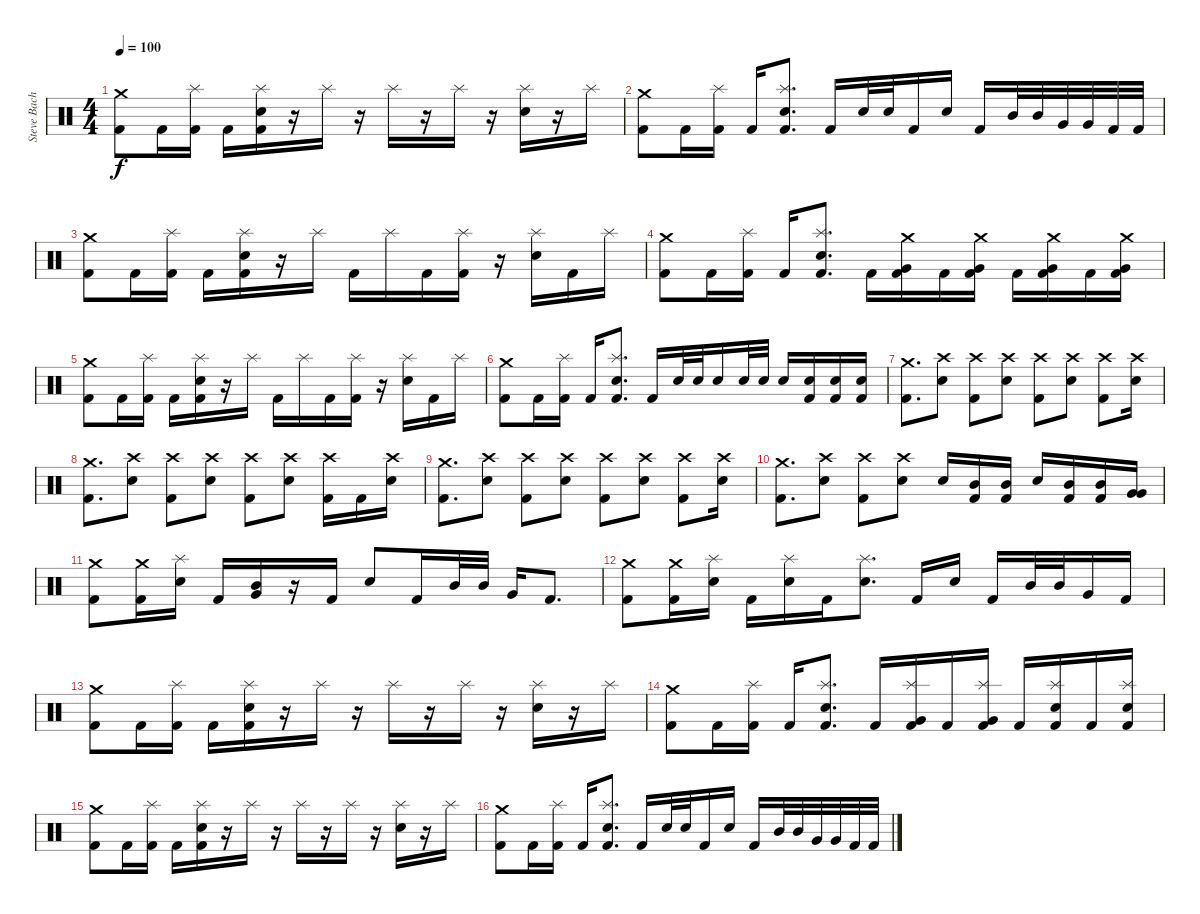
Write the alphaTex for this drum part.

\track ("Steve Bache" "Steve Bach") {instrument percussion}
\staff {score}
\articulation defaults
\ts (4 4)
\tempo 100
\clef neutral
\ks c
("Crash medium (hit)" "Kick (hit) 2").8{dy f} "Kick (hit) 2".16 ("Splash (hit)" "Kick (hit) 2").16 "Kick (hit) 2".16 ("Splash (hit)" "Electric Snare (hit)" "Kick (hit) 2").16 r.16 "Splash (hit)".16 r.16 "Splash (hit)".16 r.16 "Splash (hit)".16 r.16 ("Splash (hit)" "Electric Snare (hit)").16 r.16 "Splash (hit)".16 |
("Crash medium (hit)" "Kick (hit) 2").8 "Kick (hit) 2".16 ("Splash (hit)" "Kick (hit) 2").16 "Kick (hit) 2".16 ("Splash (hit)" "Electric Snare (hit)" "Kick (hit) 2").8{d} "Kick (hit) 2".16 "Electric Snare (hit)".32 "Electric Snare (hit)".32 "Kick (hit) 2".16 "Electric Snare (hit)".16 "Kick (hit) 2".16 "Mid Tom (hit)".32 "Mid Tom (hit)".32 "Very Low Tom (hit)".32 "Very Low Tom (hit)".32 "Kick (hit) 2".32 "Kick (hit) 2".32 |
("Crash medium (hit)" "Kick (hit) 2").8 "Kick (hit) 2".16 ("Splash (hit)" "Kick (hit) 2").16 "Kick (hit) 2".16 ("Splash (hit)" "Electric Snare (hit)" "Kick (hit) 2").16 r.16 "Splash (hit)".16 "Kick (hit) 2".16 "Splash (hit)".16 "Kick (hit) 2".16 ("Splash (hit)" "Kick (hit) 2").16 r.16 ("Splash (hit)" "Electric Snare (hit)").16 "Kick (hit) 2".16 "Splash (hit)".16 |
("Crash medium (hit)" "Kick (hit) 2").8 "Kick (hit) 2".16 ("Splash (hit)" "Kick (hit) 2").16 "Kick (hit) 2".16 ("Splash (hit)" "Electric Snare (hit)" "Kick (hit) 2").8{d} "Kick (hit) 2".16 ("Crash medium (hit)" "Very Low Tom (hit)" "Kick (hit) 2").16 "Kick (hit) 2".16 ("Crash medium (hit)" "Very Low Tom (hit)" "Kick (hit) 2").16 "Kick (hit) 2".16 ("Crash medium (hit)" "Very Low Tom (hit)" "Kick (hit) 2").16 "Kick (hit) 2".16 ("Crash medium (hit)" "Very Low Tom (hit)" "Kick (hit) 2").16 |
("Crash medium (hit)" "Kick (hit) 2").8 "Kick (hit) 2".16 ("Splash (hit)" "Kick (hit) 2").16 "Kick (hit) 2".16 ("Splash (hit)" "Electric Snare (hit)" "Kick (hit) 2").16 r.16 "Splash (hit)".16 "Kick (hit) 2".16 "Splash (hit)".16 "Kick (hit) 2".16 ("Splash (hit)" "Kick (hit) 2").16 r.16 ("Splash (hit)" "Electric Snare (hit)").16 "Kick (hit) 2".16 "Splash (hit)".16 |
("Crash medium (hit)" "Kick (hit) 2").8 "Kick (hit) 2".16 ("Splash (hit)" "Kick (hit) 2").16 "Kick (hit) 2".16 ("Splash (hit)" "Electric Snare (hit)" "Kick (hit) 2").8{d} "Kick (hit) 2".16 "Electric Snare (hit)".32 "Electric Snare (hit)".32 "Electric Snare (hit)".16 "Electric Snare (hit)".32 "Electric Snare (hit)".32 "Electric Snare (hit)".16 ("Electric Snare (hit)" "Kick (hit) 2").16 ("Electric Snare (hit)" "Kick (hit) 2").16 ("Electric Snare (hit)" "Kick (hit) 2").16 |
("Crash medium (hit)" "Kick (hit) 2").8{d} ("Crash high (hit)" "Electric Snare (hit)").8 ("Crash high (hit)" "Kick (hit) 2").8 ("Crash high (hit)" "Electric Snare (hit)").8 ("Crash high (hit)" "Kick (hit) 2").8 ("Crash high (hit)" "Electric Snare (hit)").8 ("Crash high (hit)" "Kick (hit) 2").8 ("Crash high (hit)" "Electric Snare (hit)").16 |
("Crash medium (hit)" "Kick (hit) 2").8{d} ("Crash high (hit)" "Electric Snare (hit)").8 ("Crash high (hit)" "Kick (hit) 2").8 ("Crash high (hit)" "Electric Snare (hit)").8 ("Crash high (hit)" "Kick (hit) 2").8 ("Crash high (hit)" "Electric Snare (hit)").8 ("Crash high (hit)" "Kick (hit) 2").16 "Kick (hit) 2".16 ("Crash high (hit)" "Electric Snare (hit)").16 |
("Crash medium (hit)" "Kick (hit) 2").8{d} ("Crash high (hit)" "Electric Snare (hit)").8 ("Crash high (hit)" "Kick (hit) 2").8 ("Crash high (hit)" "Electric Snare (hit)").8 ("Crash high (hit)" "Kick (hit) 2").8 ("Crash high (hit)" "Electric Snare (hit)").8 ("Crash high (hit)" "Kick (hit) 2").8 ("Crash high (hit)" "Electric Snare (hit)").16 |
("Crash medium (hit)" "Kick (hit) 2").8{d} ("Crash high (hit)" "Electric Snare (hit)").8 ("Crash high (hit)" "Kick (hit) 2").8 ("Crash high (hit)" "Electric Snare (hit)").8 "Electric Snare (hit)".16 ("Mid Tom (hit)" "Kick (hit) 2").16 ("Mid Tom (hit)" "Kick (hit) 2").16 "Electric Snare (hit)".16 ("Mid Tom (hit)" "Kick (hit) 2").16 ("Mid Tom (hit)" "Kick (hit) 2").16 ("Very Low Tom (hit)" "Very Low Tom (hit)").16 |
("Crash medium (hit)" "Kick (hit) 2").8 ("Crash medium (hit)" "Kick (hit) 2").16 ("Splash (hit)" "Electric Snare (hit)").16 "Kick (hit) 2".16 ("Mid Tom (hit)" "Very Low Tom (hit)").16 r.16 "Kick (hit) 2".16 "Electric Snare (hit)".8 "Kick (hit) 2".16 "Mid Tom (hit)".32 "Mid Tom (hit)".32 "Very Low Tom (hit)".16 "Kick (hit) 2".8{d} |
("Crash medium (hit)" "Kick (hit) 2").8 ("Crash medium (hit)" "Kick (hit) 2").16 ("Splash (hit)" "Electric Snare (hit)").16 "Kick (hit) 2".16 ("Splash (hit)" "Electric Snare (hit)").16 "Kick (hit) 2".16 ("Splash (hit)" "Electric Snare (hit)").8{d} "Kick (hit) 2".16 "Electric Snare (hit)".16 "Kick (hit) 2".16 "Mid Tom (hit)".32 "Mid Tom (hit)".32 "Very Low Tom (hit)".16 "Kick (hit) 2".16 |
("Crash medium (hit)" "Kick (hit) 2").8 "Kick (hit) 2".16 ("Splash (hit)" "Kick (hit) 2").16 "Kick (hit) 2".16 ("Splash (hit)" "Electric Snare (hit)" "Kick (hit) 2").16 r.16 "Splash (hit)".16 r.16 "Splash (hit)".16 r.16 "Splash (hit)".16 r.16 ("Splash (hit)" "Electric Snare (hit)").16 r.16 "Splash (hit)".16 |
("Crash medium (hit)" "Kick (hit) 2").8 "Kick (hit) 2".16 ("Splash (hit)" "Kick (hit) 2").16 "Kick (hit) 2".16 ("Splash (hit)" "Electric Snare (hit)" "Kick (hit) 2").8{d} "Kick (hit) 2".16 ("Splash (hit)" "Very Low Tom (hit)" "Kick (hit) 2").16 "Kick (hit) 2".16 ("Splash (hit)" "Very Low Tom (hit)" "Kick (hit) 2").16 "Kick (hit) 2".16 ("Splash (hit)" "Electric Snare (hit)" "Kick (hit) 2").16 "Kick (hit) 2".16 ("Splash (hit)" "Electric Snare (hit)" "Kick (hit) 2").16 |
("Crash medium (hit)" "Kick (hit) 2").8 "Kick (hit) 2".16 ("Splash (hit)" "Kick (hit) 2").16 "Kick (hit) 2".16 ("Splash (hit)" "Electric Snare (hit)" "Kick (hit) 2").16 r.16 "Splash (hit)".16 r.16 "Splash (hit)".16 r.16 "Splash (hit)".16 r.16 ("Splash (hit)" "Electric Snare (hit)").16 r.16 "Splash (hit)".16 |
("Crash medium (hit)" "Kick (hit) 2").8 "Kick (hit) 2".16 ("Splash (hit)" "Kick (hit) 2").16 "Kick (hit) 2".16 ("Splash (hit)" "Electric Snare (hit)" "Kick (hit) 2").8{d} "Kick (hit) 2".16 "Electric Snare (hit)".32 "Electric Snare (hit)".32 "Kick (hit) 2".16 "Electric Snare (hit)".16 "Kick (hit) 2".16 "Mid Tom (hit)".32 "Mid Tom (hit)".32 "Very Low Tom (hit)".32 "Very Low Tom (hit)".32 "Kick (hit) 2".32 "Kick (hit) 2".32
